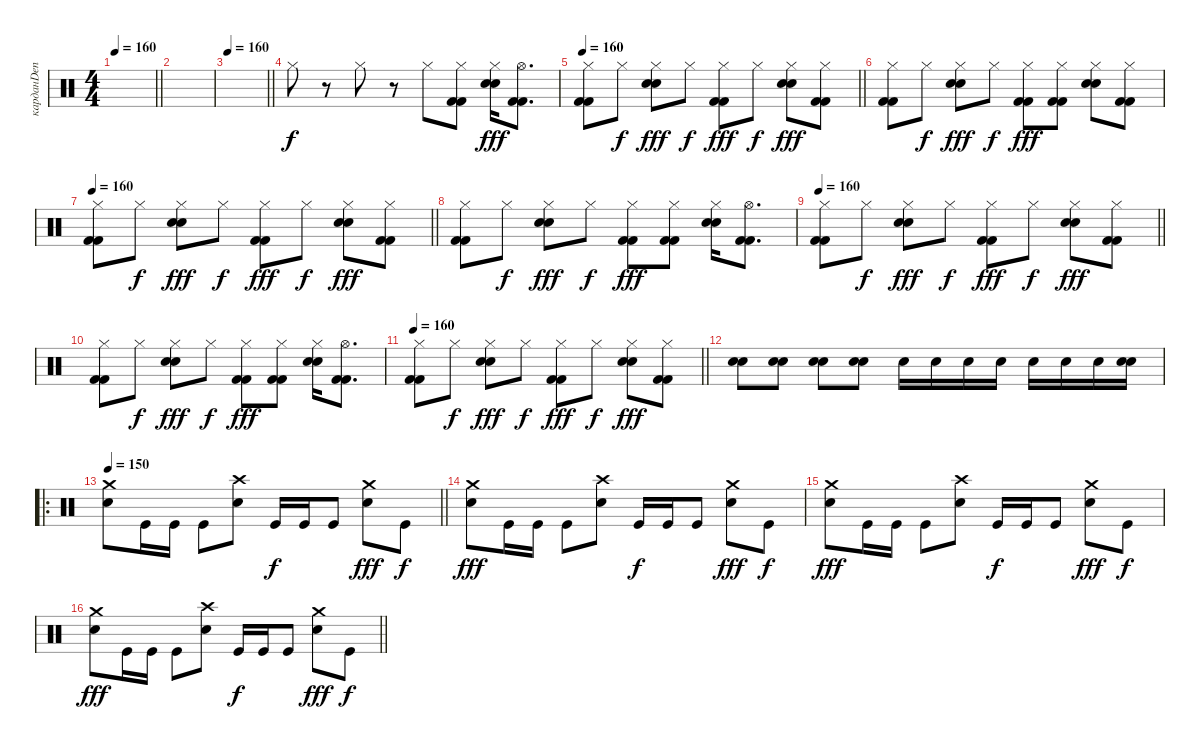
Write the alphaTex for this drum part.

\track ("карданDen" "карданDen") {instrument percussion}
\staff {score}
\articulation defaults
\ts (4 4)
\tempo 160
\clef neutral
\barLineRight lightlight
\ks c
|
|
\tempo 160
\barLineRight lightlight
|
"Hi-Hat (closed)".8 r.8 "Hi-Hat (closed)".8 r.8 "Hi-Hat (closed)".8 ("Hi-Hat (closed)" "Kick (hit) 2" "Kick (hit) 2").8 ("Hi-Hat (closed)" "Electric Snare (hit)" "Electric Snare (hit)").16{dy fff} ("Hi-Hat (open)" "Kick (hit) 2" "Kick (hit) 2").8{d} |
\tempo 160
\barLineRight lightlight
("Hi-Hat (closed)" "Kick (hit) 2" "Kick (hit) 2").8 "Hi-Hat (closed)".8{dy f} ("Hi-Hat (closed)" "Electric Snare (hit)" "Electric Snare (hit)").8{dy fff} "Hi-Hat (closed)".8{dy f} ("Hi-Hat (closed)" "Kick (hit) 2" "Kick (hit) 2").8{dy fff} "Hi-Hat (closed)".8{dy f} ("Hi-Hat (closed)" "Electric Snare (hit)" "Electric Snare (hit)").8{dy fff} ("Hi-Hat (closed)" "Kick (hit) 2" "Kick (hit) 2").8 |
("Hi-Hat (closed)" "Kick (hit) 2" "Kick (hit) 2").8 "Hi-Hat (closed)".8{dy f} ("Hi-Hat (closed)" "Electric Snare (hit)" "Electric Snare (hit)").8{dy fff} "Hi-Hat (closed)".8{dy f} ("Hi-Hat (closed)" "Kick (hit) 2" "Kick (hit) 2").8{dy fff} ("Hi-Hat (closed)" "Kick (hit) 2" "Kick (hit) 2").8 ("Hi-Hat (closed)" "Electric Snare (hit)" "Electric Snare (hit)").8 ("Hi-Hat (closed)" "Kick (hit) 2" "Kick (hit) 2").8 |
\tempo 160
\barLineRight lightlight
("Hi-Hat (closed)" "Kick (hit) 2" "Kick (hit) 2").8 "Hi-Hat (closed)".8{dy f} ("Hi-Hat (closed)" "Electric Snare (hit)" "Electric Snare (hit)").8{dy fff} "Hi-Hat (closed)".8{dy f} ("Hi-Hat (closed)" "Kick (hit) 2" "Kick (hit) 2").8{dy fff} "Hi-Hat (closed)".8{dy f} ("Hi-Hat (closed)" "Electric Snare (hit)" "Electric Snare (hit)").8{dy fff} ("Hi-Hat (closed)" "Kick (hit) 2" "Kick (hit) 2").8 |
("Hi-Hat (closed)" "Kick (hit) 2" "Kick (hit) 2").8 "Hi-Hat (closed)".8{dy f} ("Hi-Hat (closed)" "Electric Snare (hit)" "Electric Snare (hit)").8{dy fff} "Hi-Hat (closed)".8{dy f} ("Hi-Hat (closed)" "Kick (hit) 2" "Kick (hit) 2").8{dy fff} ("Hi-Hat (closed)" "Kick (hit) 2" "Kick (hit) 2").8 ("Hi-Hat (closed)" "Electric Snare (hit)" "Electric Snare (hit)").16 ("Hi-Hat (open)" "Kick (hit) 2" "Kick (hit) 2").8{d} |
\tempo 160
\barLineRight lightlight
("Hi-Hat (closed)" "Kick (hit) 2" "Kick (hit) 2").8 "Hi-Hat (closed)".8{dy f} ("Hi-Hat (closed)" "Electric Snare (hit)" "Electric Snare (hit)").8{dy fff} "Hi-Hat (closed)".8{dy f} ("Hi-Hat (closed)" "Kick (hit) 2" "Kick (hit) 2").8{dy fff} "Hi-Hat (closed)".8{dy f} ("Hi-Hat (closed)" "Electric Snare (hit)" "Electric Snare (hit)").8{dy fff} ("Hi-Hat (closed)" "Kick (hit) 2" "Kick (hit) 2").8 |
("Hi-Hat (closed)" "Kick (hit) 2" "Kick (hit) 2").8 "Hi-Hat (closed)".8{dy f} ("Hi-Hat (closed)" "Electric Snare (hit)" "Electric Snare (hit)").8{dy fff} "Hi-Hat (closed)".8{dy f} ("Hi-Hat (closed)" "Kick (hit) 2" "Kick (hit) 2").8{dy fff} ("Hi-Hat (closed)" "Kick (hit) 2" "Kick (hit) 2").8 ("Hi-Hat (closed)" "Electric Snare (hit)" "Electric Snare (hit)").16 ("Hi-Hat (open)" "Kick (hit) 2" "Kick (hit) 2").8{d} |
\tempo 160
\barLineRight lightlight
("Hi-Hat (closed)" "Kick (hit) 2" "Kick (hit) 2").8 "Hi-Hat (closed)".8{dy f} ("Hi-Hat (closed)" "Electric Snare (hit)" "Electric Snare (hit)").8{dy fff} "Hi-Hat (closed)".8{dy f} ("Hi-Hat (closed)" "Kick (hit) 2" "Kick (hit) 2").8{dy fff} "Hi-Hat (closed)".8{dy f} ("Hi-Hat (closed)" "Electric Snare (hit)" "Electric Snare (hit)").8{dy fff} ("Hi-Hat (closed)" "Kick (hit) 2" "Kick (hit) 2").8 |
("Electric Snare (hit)" "Electric Snare (hit)").8 ("Electric Snare (hit)" "Electric Snare (hit)").8 ("Electric Snare (hit)" "Electric Snare (hit)").8 ("Electric Snare (hit)" "Electric Snare (hit)").8 "Electric Snare (hit)".16 "Electric Snare (hit)".16 "Electric Snare (hit)".16 "Electric Snare (hit)".16 "Electric Snare (hit)".16 "Electric Snare (hit)".16 "Electric Snare (hit)".16 ("Electric Snare (hit)" "Electric Snare (hit)").16 |
\ro
\tempo 150
\barLineRight lightlight
("Crash medium (hit)" "Electric Snare (hit)").8 "Kick (hit)".16 "Kick (hit)".16 "Kick (hit)".8 ("Crash high (hit)" "Electric Snare (hit)").8 "Kick (hit)".16{dy f} "Kick (hit)".16 "Kick (hit)".8 ("Crash medium (hit)" "Electric Snare (hit)").8{dy fff} "Kick (hit)".8{dy f} |
("Crash medium (hit)" "Electric Snare (hit)").8{dy fff} "Kick (hit)".16 "Kick (hit)".16 "Kick (hit)".8 ("Crash high (hit)" "Electric Snare (hit)").8 "Kick (hit)".16{dy f} "Kick (hit)".16 "Kick (hit)".8 ("Crash medium (hit)" "Electric Snare (hit)").8{dy fff} "Kick (hit)".8{dy f} |
("Crash medium (hit)" "Electric Snare (hit)").8{dy fff} "Kick (hit)".16 "Kick (hit)".16 "Kick (hit)".8 ("Crash high (hit)" "Electric Snare (hit)").8 "Kick (hit)".16{dy f} "Kick (hit)".16 "Kick (hit)".8 ("Crash medium (hit)" "Electric Snare (hit)").8{dy fff} "Kick (hit)".8{dy f} |
\barLineRight lightlight
("Crash medium (hit)" "Electric Snare (hit)").8{dy fff} "Kick (hit)".16 "Kick (hit)".16 "Kick (hit)".8 ("Crash high (hit)" "Electric Snare (hit)").8 "Kick (hit)".16{dy f} "Kick (hit)".16 "Kick (hit)".8 ("Crash medium (hit)" "Electric Snare (hit)").8{dy fff} "Kick (hit)".8{dy f}
